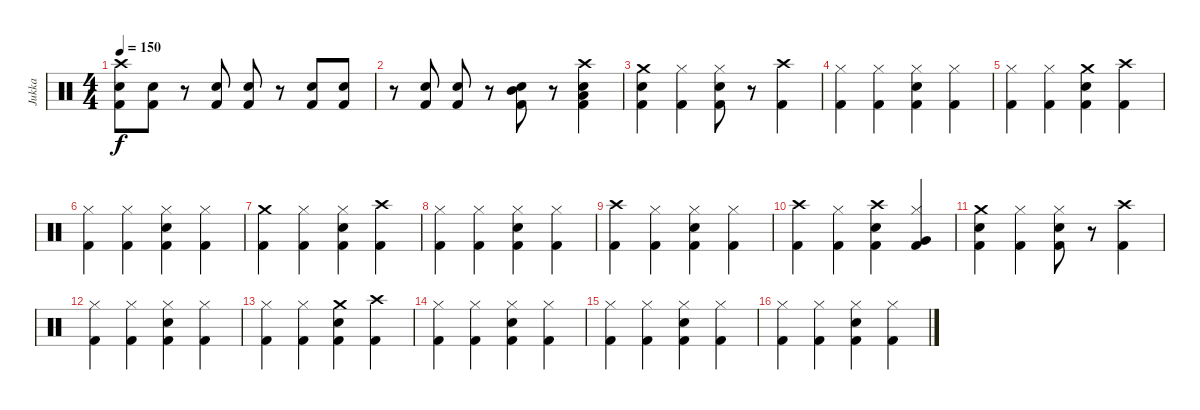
\track ("Jukka" "Jukka") {instrument percussion}
\staff {score}
\articulation defaults
\ts (4 4)
\tempo 150
\clef neutral
\ks c
("Crash high (hit)" "Electric Snare (hit)" "Kick (hit) 2").8{dy f} ("Electric Snare (hit)" "Kick (hit) 2").8 r.8 ("Electric Snare (hit)" "Kick (hit) 2").8 ("Electric Snare (hit)" "Kick (hit) 2").8 r.8 ("Electric Snare (hit)" "Kick (hit) 2").8 ("Electric Snare (hit)" "Kick (hit) 2").8 |
r.8 ("Electric Snare (hit)" "Kick (hit) 2").8 ("Electric Snare (hit)" "Kick (hit) 2").8 r.8 ("Electric Snare (hit)" "Mid Tom (hit)" "Kick (hit) 2").8 r.8 ("Crash high (hit)" "Electric Snare (hit)" "Low Tom (hit)" "Kick (hit) 2").4 |
("Crash medium (hit)" "Electric Snare (hit)" "Kick (hit) 2").4 ("Hi-Hat (closed)" "Kick (hit) 2").4 ("Hi-Hat (closed)" "Electric Snare (hit)" "Kick (hit) 2").8 r.8 ("Crash high (hit)" "Kick (hit) 2").4 |
("Hi-Hat (closed)" "Kick (hit) 2").4 ("Hi-Hat (closed)" "Kick (hit) 2").4 ("Hi-Hat (closed)" "Electric Snare (hit)" "Kick (hit) 2").4 ("Hi-Hat (closed)" "Kick (hit) 2").4 |
("Hi-Hat (closed)" "Kick (hit) 2").4 ("Hi-Hat (closed)" "Kick (hit) 2").4 ("Crash medium (hit)" "Electric Snare (hit)" "Kick (hit) 2").4 ("Crash high (hit)" "Kick (hit) 2").4 |
("Hi-Hat (closed)" "Kick (hit) 2").4 ("Hi-Hat (closed)" "Kick (hit) 2").4 ("Hi-Hat (closed)" "Electric Snare (hit)" "Kick (hit) 2").4 ("Hi-Hat (closed)" "Kick (hit) 2").4 |
("Crash medium (hit)" "Kick (hit) 2").4 ("Hi-Hat (closed)" "Kick (hit) 2").4 ("Hi-Hat (closed)" "Electric Snare (hit)" "Kick (hit) 2").4 ("Crash high (hit)" "Kick (hit) 2").4 |
("Hi-Hat (closed)" "Kick (hit) 2").4 ("Hi-Hat (closed)" "Kick (hit) 2").4 ("Hi-Hat (closed)" "Electric Snare (hit)" "Kick (hit) 2").4 ("Hi-Hat (closed)" "Kick (hit) 2").4 |
("Crash high (hit)" "Kick (hit) 2").4 ("Hi-Hat (closed)" "Kick (hit) 2").4 ("Hi-Hat (closed)" "Electric Snare (hit)" "Kick (hit) 2").4 ("Hi-Hat (closed)" "Kick (hit) 2").4 |
("Crash high (hit)" "Kick (hit) 2").4 ("Hi-Hat (closed)" "Kick (hit) 2").4 ("Crash high (hit)" "Electric Snare (hit)" "Kick (hit) 2").4 ("Hi-Hat (closed)" "Very Low Tom (hit)" "Kick (hit) 2").4 |
("Crash medium (hit)" "Electric Snare (hit)" "Kick (hit) 2").4 ("Hi-Hat (closed)" "Kick (hit) 2").4 ("Hi-Hat (closed)" "Electric Snare (hit)" "Kick (hit) 2").8 r.8 ("Crash high (hit)" "Kick (hit) 2").4 |
("Hi-Hat (closed)" "Kick (hit) 2").4 ("Hi-Hat (closed)" "Kick (hit) 2").4 ("Hi-Hat (closed)" "Electric Snare (hit)" "Kick (hit) 2").4 ("Hi-Hat (closed)" "Kick (hit) 2").4 |
("Hi-Hat (closed)" "Kick (hit) 2").4 ("Hi-Hat (closed)" "Kick (hit) 2").4 ("Crash medium (hit)" "Electric Snare (hit)" "Kick (hit) 2").4 ("Crash high (hit)" "Kick (hit) 2").4 |
("Hi-Hat (closed)" "Kick (hit) 2").4 ("Hi-Hat (closed)" "Kick (hit) 2").4 ("Hi-Hat (closed)" "Electric Snare (hit)" "Kick (hit) 2").4 ("Hi-Hat (closed)" "Kick (hit) 2").4 |
("Hi-Hat (closed)" "Kick (hit) 2").4 ("Hi-Hat (closed)" "Kick (hit) 2").4 ("Hi-Hat (closed)" "Electric Snare (hit)" "Kick (hit) 2").4 ("Hi-Hat (closed)" "Kick (hit) 2").4 |
("Hi-Hat (closed)" "Kick (hit) 2").4 ("Hi-Hat (closed)" "Kick (hit) 2").4 ("Hi-Hat (closed)" "Electric Snare (hit)" "Kick (hit) 2").4 ("Hi-Hat (closed)" "Kick (hit) 2").4
